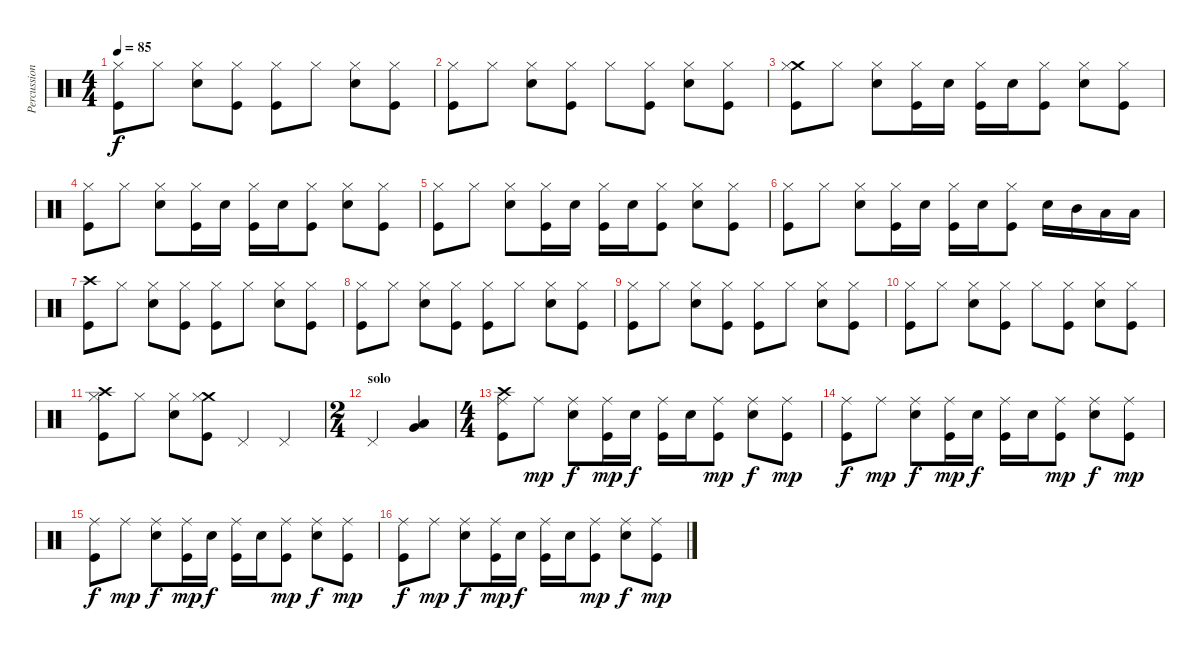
\track ("Percussion" "Percussion") {instrument percussion}
\staff {score}
\articulation defaults
\ts (4 4)
\tempo 85
\clef neutral
\ks c
("Hi-Hat (closed)" "Kick (hit)").8{dy f} "Hi-Hat (closed)".8 ("Hi-Hat (closed)" "Snare (hit) 2").8 ("Hi-Hat (closed)" "Kick (hit)").8 ("Hi-Hat (closed)" "Kick (hit)").8 "Hi-Hat (closed)".8 ("Hi-Hat (closed)" "Snare (hit) 2").8 ("Hi-Hat (closed)" "Kick (hit)").8 |
("Hi-Hat (closed)" "Kick (hit)").8 "Hi-Hat (closed)".8 ("Hi-Hat (closed)" "Snare (hit) 2").8 ("Hi-Hat (closed)" "Kick (hit)").8 "Hi-Hat (closed)".8 ("Hi-Hat (closed)" "Kick (hit)").8 ("Hi-Hat (closed)" "Snare (hit) 2").8 ("Hi-Hat (closed)" "Kick (hit)").8 |
("Crash medium (hit)" "Hi-Hat (closed)" "Kick (hit)").8 "Hi-Hat (closed)".8 ("Hi-Hat (closed)" "Snare (hit) 2").8 ("Hi-Hat (closed)" "Kick (hit)").16 "Snare (hit) 2".16 ("Hi-Hat (closed)" "Kick (hit)").16 "Snare (hit) 2".16 ("Hi-Hat (closed)" "Kick (hit)").8 ("Hi-Hat (closed)" "Snare (hit) 2").8 ("Hi-Hat (closed)" "Kick (hit)").8 |
("Hi-Hat (closed)" "Kick (hit)").8 "Hi-Hat (closed)".8 ("Hi-Hat (closed)" "Snare (hit) 2").8 ("Hi-Hat (closed)" "Kick (hit)").16 "Snare (hit) 2".16 ("Hi-Hat (closed)" "Kick (hit)").16 "Snare (hit) 2".16 ("Hi-Hat (closed)" "Kick (hit)").8 ("Hi-Hat (closed)" "Snare (hit) 2").8 ("Hi-Hat (closed)" "Kick (hit)").8 |
("Hi-Hat (closed)" "Kick (hit)").8 "Hi-Hat (closed)".8 ("Hi-Hat (closed)" "Snare (hit) 2").8 ("Hi-Hat (closed)" "Kick (hit)").16 "Snare (hit) 2".16 ("Hi-Hat (closed)" "Kick (hit)").16 "Snare (hit) 2".16 ("Hi-Hat (closed)" "Kick (hit)").8 ("Hi-Hat (closed)" "Snare (hit) 2").8 ("Hi-Hat (closed)" "Kick (hit)").8 |
("Hi-Hat (closed)" "Kick (hit)").8 "Hi-Hat (closed)".8 ("Hi-Hat (closed)" "Snare (hit) 2").8 ("Hi-Hat (closed)" "Kick (hit)").16 "Snare (hit) 2".16 ("Hi-Hat (closed)" "Kick (hit)").16 "Snare (hit) 2".16 ("Hi-Hat (closed)" "Kick (hit)").8 "Snare (hit) 2".16 "Mid Tom (hit)".16 "Low Tom (hit)".16 "Low Tom (hit)".16 |
("Crash high (hit)" "Kick (hit)").8 "Hi-Hat (closed)".8 ("Hi-Hat (closed)" "Snare (hit) 2").8 ("Hi-Hat (closed)" "Kick (hit)").8 ("Hi-Hat (closed)" "Kick (hit)").8 "Hi-Hat (closed)".8 ("Hi-Hat (closed)" "Snare (hit) 2").8 ("Hi-Hat (closed)" "Kick (hit)").8 |
("Hi-Hat (closed)" "Kick (hit)").8 "Hi-Hat (closed)".8 ("Hi-Hat (closed)" "Snare (hit) 2").8 ("Hi-Hat (closed)" "Kick (hit)").8 ("Hi-Hat (closed)" "Kick (hit)").8 "Hi-Hat (closed)".8 ("Hi-Hat (closed)" "Snare (hit) 2").8 ("Hi-Hat (closed)" "Kick (hit)").8 |
("Hi-Hat (closed)" "Kick (hit)").8 "Hi-Hat (closed)".8 ("Hi-Hat (closed)" "Snare (hit) 2").8 ("Hi-Hat (closed)" "Kick (hit)").8 ("Hi-Hat (closed)" "Kick (hit)").8 "Hi-Hat (closed)".8 ("Hi-Hat (closed)" "Snare (hit) 2").8 ("Hi-Hat (closed)" "Kick (hit)").8 |
("Hi-Hat (closed)" "Kick (hit)").8 "Hi-Hat (closed)".8 ("Hi-Hat (closed)" "Snare (hit) 2").8 ("Hi-Hat (closed)" "Kick (hit)").8 "Hi-Hat (closed)".8 ("Hi-Hat (closed)" "Kick (hit)").8 ("Hi-Hat (closed)" "Snare (hit) 2").8 ("Hi-Hat (closed)" "Kick (hit)").8 |
("Crash high (hit)" "Hi-Hat (closed)" "Kick (hit)").8 "Hi-Hat (closed)".8 ("Hi-Hat (closed)" "Snare (hit) 2").8 ("Crash medium (hit)" "Hi-Hat (closed)" "Kick (hit)").8 "Pedal Hi-Hat (hit)".4{volume 12} "Pedal Hi-Hat (hit)".4 |
\ts (2 4)
\section ("" "solo")
"Pedal Hi-Hat (hit)".4 ("Low Floor Tom (hit)" "Very Low Tom (hit)").4{volume 16} |
\ts (4 4)
("Crash high (hit)" "Ride (middle)" "Kick (hit)").8 "Ride (middle)".8{dy mp} ("Ride (middle)" "Snare (hit) 2").8{dy f} ("Ride (middle)" "Kick (hit)").16{dy mp} "Snare (hit) 2".16{dy f} ("Ride (middle)" "Kick (hit)").16 "Snare (hit) 2".16 ("Ride (middle)" "Kick (hit)").8{dy mp} ("Ride (middle)" "Snare (hit) 2").8{dy f} ("Ride (middle)" "Kick (hit)").8{dy mp} |
("Ride (middle)" "Kick (hit)").8{dy f} "Ride (middle)".8{dy mp} ("Ride (middle)" "Snare (hit) 2").8{dy f} ("Ride (middle)" "Kick (hit)").16{dy mp} "Snare (hit) 2".16{dy f} ("Ride (middle)" "Kick (hit)").16 "Snare (hit) 2".16 ("Ride (middle)" "Kick (hit)").8{dy mp} ("Ride (middle)" "Snare (hit) 2").8{dy f} ("Ride (middle)" "Kick (hit)").8{dy mp} |
("Ride (middle)" "Kick (hit)").8{dy f} "Ride (middle)".8{dy mp} ("Ride (middle)" "Snare (hit) 2").8{dy f} ("Ride (middle)" "Kick (hit)").16{dy mp} "Snare (hit) 2".16{dy f} ("Ride (middle)" "Kick (hit)").16 "Snare (hit) 2".16 ("Ride (middle)" "Kick (hit)").8{dy mp} ("Ride (middle)" "Snare (hit) 2").8{dy f} ("Ride (middle)" "Kick (hit)").8{dy mp} |
("Ride (middle)" "Kick (hit)").8{dy f} "Ride (middle)".8{dy mp} ("Ride (middle)" "Snare (hit) 2").8{dy f} ("Ride (middle)" "Kick (hit)").16{dy mp} "Snare (hit) 2".16{dy f} ("Ride (middle)" "Kick (hit)").16 "Snare (hit) 2".16 ("Ride (middle)" "Kick (hit)").8{dy mp} ("Ride (middle)" "Snare (hit) 2").8{dy f} ("Ride (middle)" "Kick (hit)").8{dy mp}
